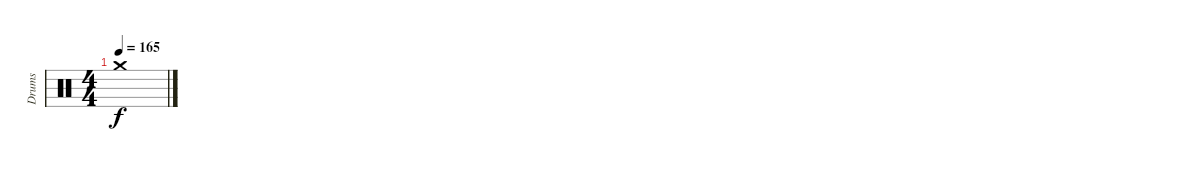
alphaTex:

\track ("Drums" "Drums") {instrument percussion}
\staff {score}
\articulation defaults
\ts (4 4)
\tempo 165
\clef neutral
\ks c "Crash medium (hit)"{t}.1{dy f}
